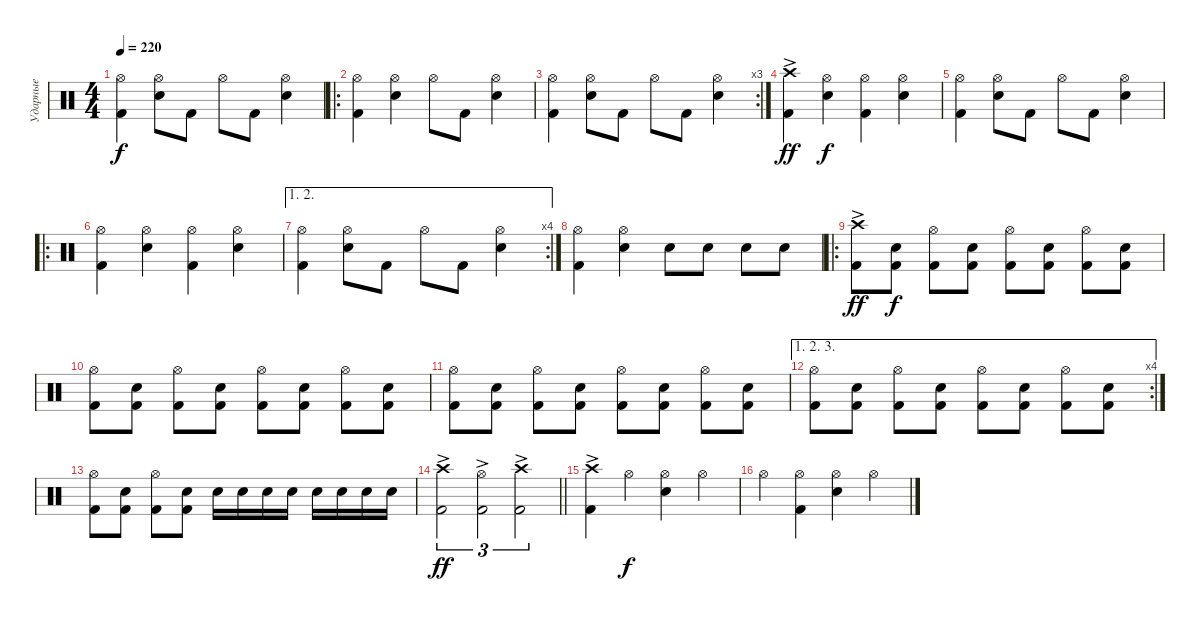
\track ("Ударные" "Ударные") {instrument percussion}
\staff {score}
\articulation defaults
\ts (4 4)
\tempo 220
\clef neutral
\ks c
("Kick (hit) 2" "Hi-Hat (open)").4{dy f} ("Snare (hit) 2" "Hi-Hat (open)").8 "Kick (hit) 2".8 "Hi-Hat (open)".8 "Kick (hit) 2".8 ("Snare (hit) 2" "Hi-Hat (open)").4 |
\ro
("Kick (hit) 2" "Hi-Hat (open)").4 ("Snare (hit) 2" "Hi-Hat (open)").4 "Hi-Hat (open)".8 "Kick (hit) 2".8 ("Snare (hit) 2" "Hi-Hat (open)").4 |
\rc 3
("Kick (hit) 2" "Hi-Hat (open)").4 ("Snare (hit) 2" "Hi-Hat (open)").8 "Kick (hit) 2".8 "Hi-Hat (open)".8 "Kick (hit) 2".8 ("Snare (hit) 2" "Hi-Hat (open)").4 |
("Kick (hit) 2" "Crash high (hit)"{ac}).4{dy ff} ("Snare (hit) 2" "Hi-Hat (open)").4{dy f} ("Kick (hit) 2" "Hi-Hat (open)").4 ("Snare (hit) 2" "Hi-Hat (open)").4 |
("Kick (hit) 2" "Hi-Hat (open)").4 ("Snare (hit) 2" "Hi-Hat (open)").8 "Kick (hit) 2".8 "Hi-Hat (open)".8 "Kick (hit) 2".8 ("Snare (hit) 2" "Hi-Hat (open)").4 |
\ro
("Kick (hit) 2" "Hi-Hat (open)").4 ("Snare (hit) 2" "Hi-Hat (open)").4 ("Kick (hit) 2" "Hi-Hat (open)").4 ("Snare (hit) 2" "Hi-Hat (open)").4 |
\ae (1 2)
\rc 4
("Kick (hit) 2" "Hi-Hat (open)").4 ("Snare (hit) 2" "Hi-Hat (open)").8 "Kick (hit) 2".8 "Hi-Hat (open)".8 "Kick (hit) 2".8 ("Snare (hit) 2" "Hi-Hat (open)").4 |
("Kick (hit) 2" "Hi-Hat (open)").4 ("Snare (hit) 2" "Hi-Hat (open)").4 "Snare (hit) 2".8 "Snare (hit) 2".8 "Snare (hit) 2".8 "Snare (hit) 2".8 |
\ro
("Kick (hit) 2" "Crash high (hit)"{ac}).8{dy ff} ("Kick (hit) 2" "Snare (hit) 2").8{dy f} ("Kick (hit) 2" "Hi-Hat (open)").8 ("Kick (hit) 2" "Snare (hit) 2").8 ("Kick (hit) 2" "Hi-Hat (open)").8 ("Kick (hit) 2" "Snare (hit) 2").8 ("Kick (hit) 2" "Hi-Hat (open)").8 ("Kick (hit) 2" "Snare (hit) 2").8 |
("Kick (hit) 2" "Hi-Hat (open)").8 ("Kick (hit) 2" "Snare (hit) 2").8 ("Kick (hit) 2" "Hi-Hat (open)").8 ("Kick (hit) 2" "Snare (hit) 2").8 ("Kick (hit) 2" "Hi-Hat (open)").8 ("Kick (hit) 2" "Snare (hit) 2").8 ("Kick (hit) 2" "Hi-Hat (open)").8 ("Kick (hit) 2" "Snare (hit) 2").8 |
("Kick (hit) 2" "Hi-Hat (open)").8 ("Kick (hit) 2" "Snare (hit) 2").8 ("Kick (hit) 2" "Hi-Hat (open)").8 ("Kick (hit) 2" "Snare (hit) 2").8 ("Kick (hit) 2" "Hi-Hat (open)").8 ("Kick (hit) 2" "Snare (hit) 2").8 ("Kick (hit) 2" "Hi-Hat (open)").8 ("Kick (hit) 2" "Snare (hit) 2").8 |
\ae (1 2 3)
\rc 4
("Kick (hit) 2" "Hi-Hat (open)").8 ("Kick (hit) 2" "Snare (hit) 2").8 ("Kick (hit) 2" "Hi-Hat (open)").8 ("Kick (hit) 2" "Snare (hit) 2").8 ("Kick (hit) 2" "Hi-Hat (open)").8 ("Kick (hit) 2" "Snare (hit) 2").8 ("Kick (hit) 2" "Hi-Hat (open)").8 ("Kick (hit) 2" "Snare (hit) 2").8 |
("Kick (hit) 2" "Hi-Hat (open)").8 ("Kick (hit) 2" "Snare (hit) 2").8 ("Kick (hit) 2" "Hi-Hat (open)").8 ("Kick (hit) 2" "Snare (hit) 2").8 "Snare (hit) 2".16 "Snare (hit) 2".16 "Snare (hit) 2".16 "Snare (hit) 2".16 "Snare (hit) 2".16 "Snare (hit) 2".16 "Snare (hit) 2".16 "Snare (hit) 2".16 |
\barLineRight lightlight
("Kick (hit) 2" "Crash high (hit)"{ac}).2{tu (3 2) dy ff} ("Kick (hit) 2" "Hi-Hat (open)"{ac}).2{tu (3 2)} ("Kick (hit) 2" "Crash high (hit)"{ac}).2{tu (3 2)} |
("Kick (hit) 2" "Crash high (hit)"{ac}).4 "Hi-Hat (open)".4{dy f} ("Snare (hit) 2" "Hi-Hat (open)").4 "Hi-Hat (open)".4 |
"Hi-Hat (open)".4 ("Kick (hit) 2" "Hi-Hat (open)").4 ("Snare (hit) 2" "Hi-Hat (open)").4 "Hi-Hat (open)".4
